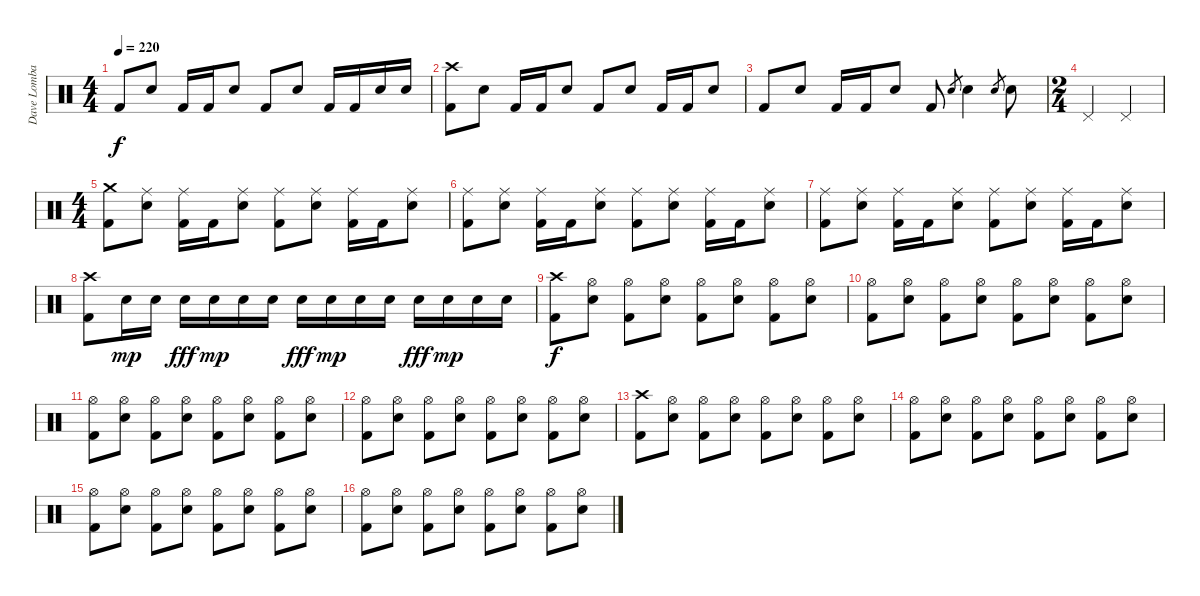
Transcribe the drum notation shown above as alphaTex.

\track ("Dave Lombardo" "Dave Lomba") {instrument percussion}
\staff {score}
\articulation defaults
\ts (4 4)
\tempo 220
\clef neutral
\ks c "Kick (hit) 2".8{dy f} "Electric Snare (hit)".8 "Kick (hit) 2".16 "Kick (hit) 2".16 "Electric Snare (hit)".8 "Kick (hit) 2".8 "Electric Snare (hit)".8 "Kick (hit) 2".16 "Kick (hit) 2".16 "Electric Snare (hit)".16 "Electric Snare (hit)".16
|
("Crash high (hit)" "Kick (hit) 2").8 "Electric Snare (hit)".8 "Kick (hit) 2".16 "Kick (hit) 2".16 "Electric Snare (hit)".8 "Kick (hit) 2".8 "Electric Snare (hit)".8 "Kick (hit) 2".16 "Kick (hit) 2".16 "Electric Snare (hit)".8 |
"Kick (hit) 2".8 "Electric Snare (hit)".8 "Kick (hit) 2".16 "Kick (hit) 2".16 "Electric Snare (hit)".8 "Kick (hit) 2".8 "Electric Snare (hit)".8{gr} "Electric Snare (hit)".4 "Electric Snare (hit)".8{gr} "Electric Snare (hit)".8 |
\ts (2 4)
"Pedal Hi-Hat (hit)".4 "Pedal Hi-Hat (hit)".4 |
\ts (4 4)
("Crash medium (hit)" "Kick (hit) 2").8 ("Ride (middle)" "Electric Snare (hit)").8 ("Ride (middle)" "Kick (hit) 2").16 "Kick (hit) 2".16 ("Ride (middle)" "Electric Snare (hit)").8 ("Ride (middle)" "Kick (hit) 2").8 ("Ride (middle)" "Electric Snare (hit)").8 ("Ride (middle)" "Kick (hit) 2").16 "Kick (hit) 2".16 ("Ride (middle)" "Electric Snare (hit)").8 |
("Ride (middle)" "Kick (hit) 2").8 ("Ride (middle)" "Electric Snare (hit)").8 ("Ride (middle)" "Kick (hit) 2").16 "Kick (hit) 2".16 ("Ride (middle)" "Electric Snare (hit)").8 ("Ride (middle)" "Kick (hit) 2").8 ("Ride (middle)" "Electric Snare (hit)").8 ("Ride (middle)" "Kick (hit) 2").16 "Kick (hit) 2".16 ("Ride (middle)" "Electric Snare (hit)").8 |
("Ride (middle)" "Kick (hit) 2").8 ("Ride (middle)" "Electric Snare (hit)").8 ("Ride (middle)" "Kick (hit) 2").16 "Kick (hit) 2".16 ("Ride (middle)" "Electric Snare (hit)").8 ("Ride (middle)" "Kick (hit) 2").8 ("Ride (middle)" "Electric Snare (hit)").8 ("Ride (middle)" "Kick (hit) 2").16 "Kick (hit) 2".16 ("Ride (middle)" "Electric Snare (hit)").8 |
("Crash high (hit)" "Kick (hit) 2").8 "Electric Snare (hit)".16{dy mp} "Electric Snare (hit)".16 "Electric Snare (hit)".16{dy fff} "Electric Snare (hit)".16{dy mp} "Electric Snare (hit)".16 "Electric Snare (hit)".16 "Electric Snare (hit)".16{dy fff} "Electric Snare (hit)".16{dy mp} "Electric Snare (hit)".16 "Electric Snare (hit)".16 "Electric Snare (hit)".16{dy fff} "Electric Snare (hit)".16{dy mp} "Electric Snare (hit)".16 "Electric Snare (hit)".16 |
("Crash high (hit)" "Kick (hit) 2").8{dy f} ("Hi-Hat (open)" "Electric Snare (hit)").8 ("Hi-Hat (open)" "Kick (hit) 2").8 ("Hi-Hat (open)" "Electric Snare (hit)").8 ("Hi-Hat (open)" "Kick (hit) 2").8 ("Hi-Hat (open)" "Electric Snare (hit)").8 ("Hi-Hat (open)" "Kick (hit) 2").8 ("Hi-Hat (open)" "Electric Snare (hit)").8 |
("Hi-Hat (open)" "Kick (hit) 2").8 ("Hi-Hat (open)" "Electric Snare (hit)").8 ("Hi-Hat (open)" "Kick (hit) 2").8 ("Hi-Hat (open)" "Electric Snare (hit)").8 ("Hi-Hat (open)" "Kick (hit) 2").8 ("Hi-Hat (open)" "Electric Snare (hit)").8 ("Hi-Hat (open)" "Kick (hit) 2").8 ("Hi-Hat (open)" "Electric Snare (hit)").8 |
("Hi-Hat (open)" "Kick (hit) 2").8 ("Hi-Hat (open)" "Electric Snare (hit)").8 ("Hi-Hat (open)" "Kick (hit) 2").8 ("Hi-Hat (open)" "Electric Snare (hit)").8 ("Hi-Hat (open)" "Kick (hit) 2").8 ("Hi-Hat (open)" "Electric Snare (hit)").8 ("Hi-Hat (open)" "Kick (hit) 2").8 ("Hi-Hat (open)" "Electric Snare (hit)").8 |
("Hi-Hat (open)" "Kick (hit) 2").8 ("Hi-Hat (open)" "Electric Snare (hit)").8 ("Hi-Hat (open)" "Kick (hit) 2").8 ("Hi-Hat (open)" "Electric Snare (hit)").8 ("Hi-Hat (open)" "Kick (hit) 2").8 ("Hi-Hat (open)" "Electric Snare (hit)").8 ("Hi-Hat (open)" "Kick (hit) 2").8 ("Hi-Hat (open)" "Electric Snare (hit)").8 |
("Crash high (hit)" "Kick (hit) 2").8 ("Hi-Hat (open)" "Electric Snare (hit)").8 ("Hi-Hat (open)" "Kick (hit) 2").8 ("Hi-Hat (open)" "Electric Snare (hit)").8 ("Hi-Hat (open)" "Kick (hit) 2").8 ("Hi-Hat (open)" "Electric Snare (hit)").8 ("Hi-Hat (open)" "Kick (hit) 2").8 ("Hi-Hat (open)" "Electric Snare (hit)").8 |
("Hi-Hat (open)" "Kick (hit) 2").8 ("Hi-Hat (open)" "Electric Snare (hit)").8 ("Hi-Hat (open)" "Kick (hit) 2").8 ("Hi-Hat (open)" "Electric Snare (hit)").8 ("Hi-Hat (open)" "Kick (hit) 2").8 ("Hi-Hat (open)" "Electric Snare (hit)").8 ("Hi-Hat (open)" "Kick (hit) 2").8 ("Hi-Hat (open)" "Electric Snare (hit)").8 |
("Hi-Hat (open)" "Kick (hit) 2").8 ("Hi-Hat (open)" "Electric Snare (hit)").8 ("Hi-Hat (open)" "Kick (hit) 2").8 ("Hi-Hat (open)" "Electric Snare (hit)").8 ("Hi-Hat (open)" "Kick (hit) 2").8 ("Hi-Hat (open)" "Electric Snare (hit)").8 ("Hi-Hat (open)" "Kick (hit) 2").8 ("Hi-Hat (open)" "Electric Snare (hit)").8 |
("Hi-Hat (open)" "Kick (hit) 2").8 ("Hi-Hat (open)" "Electric Snare (hit)").8 ("Hi-Hat (open)" "Kick (hit) 2").8 ("Hi-Hat (open)" "Electric Snare (hit)").8 ("Hi-Hat (open)" "Kick (hit) 2").8 ("Hi-Hat (open)" "Electric Snare (hit)").8 ("Hi-Hat (open)" "Kick (hit) 2").8 ("Hi-Hat (open)" "Electric Snare (hit)").8
